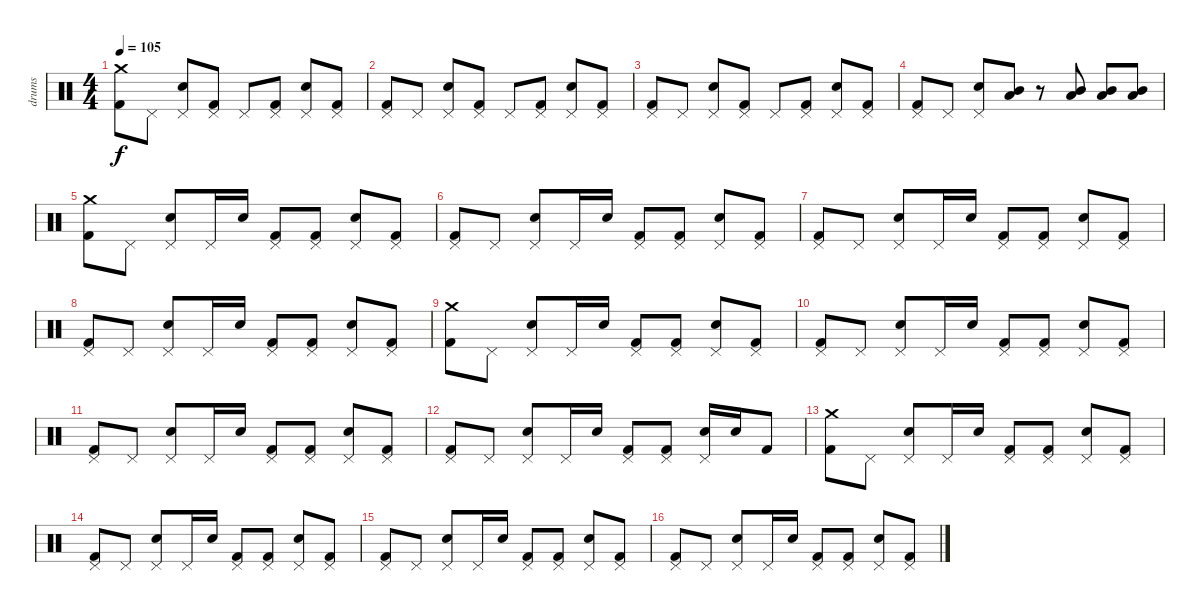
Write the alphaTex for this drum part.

\track ("drums" "drums") {instrument percussion}
\staff {score}
\articulation defaults
\ts (4 4)
\tempo 105
\clef neutral
\ks c
("Crash medium (hit)" "Kick (hit) 2").8{dy f} "Pedal Hi-Hat (hit)".8 ("Pedal Hi-Hat (hit)" "Electric Snare (hit)").8 ("Pedal Hi-Hat (hit)" "Kick (hit) 2").8 "Pedal Hi-Hat (hit)".8 ("Pedal Hi-Hat (hit)" "Kick (hit) 2").8 ("Pedal Hi-Hat (hit)" "Electric Snare (hit)").8 ("Pedal Hi-Hat (hit)" "Kick (hit) 2").8 |
("Pedal Hi-Hat (hit)" "Kick (hit) 2").8 "Pedal Hi-Hat (hit)".8 ("Pedal Hi-Hat (hit)" "Electric Snare (hit)").8 ("Pedal Hi-Hat (hit)" "Kick (hit) 2").8 "Pedal Hi-Hat (hit)".8 ("Pedal Hi-Hat (hit)" "Kick (hit) 2").8 ("Pedal Hi-Hat (hit)" "Electric Snare (hit)").8 ("Pedal Hi-Hat (hit)" "Kick (hit) 2").8 |
("Pedal Hi-Hat (hit)" "Kick (hit) 2").8 "Pedal Hi-Hat (hit)".8 ("Pedal Hi-Hat (hit)" "Electric Snare (hit)").8 ("Pedal Hi-Hat (hit)" "Kick (hit) 2").8 "Pedal Hi-Hat (hit)".8 ("Pedal Hi-Hat (hit)" "Kick (hit) 2").8 ("Pedal Hi-Hat (hit)" "Electric Snare (hit)").8 ("Pedal Hi-Hat (hit)" "Kick (hit) 2").8 |
("Pedal Hi-Hat (hit)" "Kick (hit) 2").8 "Pedal Hi-Hat (hit)".8 ("Pedal Hi-Hat (hit)" "Electric Snare (hit)").8 ("Low Tom (hit)" "Mid Tom (hit)").8 r.8 ("Mid Tom (hit)" "Low Tom (hit)").8 ("Mid Tom (hit)" "Low Tom (hit)").8 ("Mid Tom (hit)" "Low Tom (hit)").8 |
("Crash medium (hit)" "Kick (hit) 2").8 "Pedal Hi-Hat (hit)".8 ("Pedal Hi-Hat (hit)" "Electric Snare (hit)").8 "Pedal Hi-Hat (hit)".16 "Electric Snare (hit)".16 ("Pedal Hi-Hat (hit)" "Kick (hit) 2").8 ("Pedal Hi-Hat (hit)" "Kick (hit) 2").8 ("Pedal Hi-Hat (hit)" "Electric Snare (hit)").8 ("Pedal Hi-Hat (hit)" "Kick (hit) 2").8 |
("Pedal Hi-Hat (hit)" "Kick (hit) 2").8 "Pedal Hi-Hat (hit)".8 ("Pedal Hi-Hat (hit)" "Electric Snare (hit)").8 "Pedal Hi-Hat (hit)".16 "Electric Snare (hit)".16 ("Pedal Hi-Hat (hit)" "Kick (hit) 2").8 ("Pedal Hi-Hat (hit)" "Kick (hit) 2").8 ("Pedal Hi-Hat (hit)" "Electric Snare (hit)").8 ("Pedal Hi-Hat (hit)" "Kick (hit) 2").8 |
("Pedal Hi-Hat (hit)" "Kick (hit) 2").8 "Pedal Hi-Hat (hit)".8 ("Pedal Hi-Hat (hit)" "Electric Snare (hit)").8 "Pedal Hi-Hat (hit)".16 "Electric Snare (hit)".16 ("Pedal Hi-Hat (hit)" "Kick (hit) 2").8 ("Pedal Hi-Hat (hit)" "Kick (hit) 2").8 ("Pedal Hi-Hat (hit)" "Electric Snare (hit)").8 ("Pedal Hi-Hat (hit)" "Kick (hit) 2").8 |
("Pedal Hi-Hat (hit)" "Kick (hit) 2").8 "Pedal Hi-Hat (hit)".8 ("Pedal Hi-Hat (hit)" "Electric Snare (hit)").8 "Pedal Hi-Hat (hit)".16 "Electric Snare (hit)".16 ("Pedal Hi-Hat (hit)" "Kick (hit) 2").8 ("Pedal Hi-Hat (hit)" "Kick (hit) 2").8 ("Pedal Hi-Hat (hit)" "Electric Snare (hit)").8 ("Pedal Hi-Hat (hit)" "Kick (hit) 2").8 |
("Crash medium (hit)" "Kick (hit) 2").8 "Pedal Hi-Hat (hit)".8 ("Pedal Hi-Hat (hit)" "Electric Snare (hit)").8 "Pedal Hi-Hat (hit)".16 "Electric Snare (hit)".16 ("Pedal Hi-Hat (hit)" "Kick (hit) 2").8 ("Pedal Hi-Hat (hit)" "Kick (hit) 2").8 ("Pedal Hi-Hat (hit)" "Electric Snare (hit)").8 ("Pedal Hi-Hat (hit)" "Kick (hit) 2").8 |
("Pedal Hi-Hat (hit)" "Kick (hit) 2").8 "Pedal Hi-Hat (hit)".8 ("Pedal Hi-Hat (hit)" "Electric Snare (hit)").8 "Pedal Hi-Hat (hit)".16 "Electric Snare (hit)".16 ("Pedal Hi-Hat (hit)" "Kick (hit) 2").8 ("Pedal Hi-Hat (hit)" "Kick (hit) 2").8 ("Pedal Hi-Hat (hit)" "Electric Snare (hit)").8 ("Pedal Hi-Hat (hit)" "Kick (hit) 2").8 |
("Pedal Hi-Hat (hit)" "Kick (hit) 2").8 "Pedal Hi-Hat (hit)".8 ("Pedal Hi-Hat (hit)" "Electric Snare (hit)").8 "Pedal Hi-Hat (hit)".16 "Electric Snare (hit)".16 ("Pedal Hi-Hat (hit)" "Kick (hit) 2").8 ("Pedal Hi-Hat (hit)" "Kick (hit) 2").8 ("Pedal Hi-Hat (hit)" "Electric Snare (hit)").8 ("Pedal Hi-Hat (hit)" "Kick (hit) 2").8 |
("Pedal Hi-Hat (hit)" "Kick (hit) 2").8 "Pedal Hi-Hat (hit)".8 ("Pedal Hi-Hat (hit)" "Electric Snare (hit)").8 "Pedal Hi-Hat (hit)".16 "Electric Snare (hit)".16 ("Pedal Hi-Hat (hit)" "Kick (hit) 2").8 ("Pedal Hi-Hat (hit)" "Kick (hit) 2").8 ("Pedal Hi-Hat (hit)" "Electric Snare (hit)").16 "Electric Snare (hit)".16 "Kick (hit) 2".8 |
("Crash medium (hit)" "Kick (hit) 2").8 "Pedal Hi-Hat (hit)".8 ("Pedal Hi-Hat (hit)" "Electric Snare (hit)").8 "Pedal Hi-Hat (hit)".16 "Electric Snare (hit)".16 ("Pedal Hi-Hat (hit)" "Kick (hit) 2").8 ("Pedal Hi-Hat (hit)" "Kick (hit) 2").8 ("Pedal Hi-Hat (hit)" "Electric Snare (hit)").8 ("Pedal Hi-Hat (hit)" "Kick (hit) 2").8 |
("Pedal Hi-Hat (hit)" "Kick (hit) 2").8 "Pedal Hi-Hat (hit)".8 ("Pedal Hi-Hat (hit)" "Electric Snare (hit)").8 "Pedal Hi-Hat (hit)".16 "Electric Snare (hit)".16 ("Pedal Hi-Hat (hit)" "Kick (hit) 2").8 ("Pedal Hi-Hat (hit)" "Kick (hit) 2").8 ("Pedal Hi-Hat (hit)" "Electric Snare (hit)").8 ("Pedal Hi-Hat (hit)" "Kick (hit) 2").8 |
("Pedal Hi-Hat (hit)" "Kick (hit) 2").8 "Pedal Hi-Hat (hit)".8 ("Pedal Hi-Hat (hit)" "Electric Snare (hit)").8 "Pedal Hi-Hat (hit)".16 "Electric Snare (hit)".16 ("Pedal Hi-Hat (hit)" "Kick (hit) 2").8 ("Pedal Hi-Hat (hit)" "Kick (hit) 2").8 ("Pedal Hi-Hat (hit)" "Electric Snare (hit)").8 ("Pedal Hi-Hat (hit)" "Kick (hit) 2").8 |
("Pedal Hi-Hat (hit)" "Kick (hit) 2").8 "Pedal Hi-Hat (hit)".8 ("Pedal Hi-Hat (hit)" "Electric Snare (hit)").8 "Pedal Hi-Hat (hit)".16 "Electric Snare (hit)".16 ("Pedal Hi-Hat (hit)" "Kick (hit) 2").8 ("Pedal Hi-Hat (hit)" "Kick (hit) 2").8 ("Pedal Hi-Hat (hit)" "Electric Snare (hit)").8 ("Pedal Hi-Hat (hit)" "Kick (hit) 2").8
